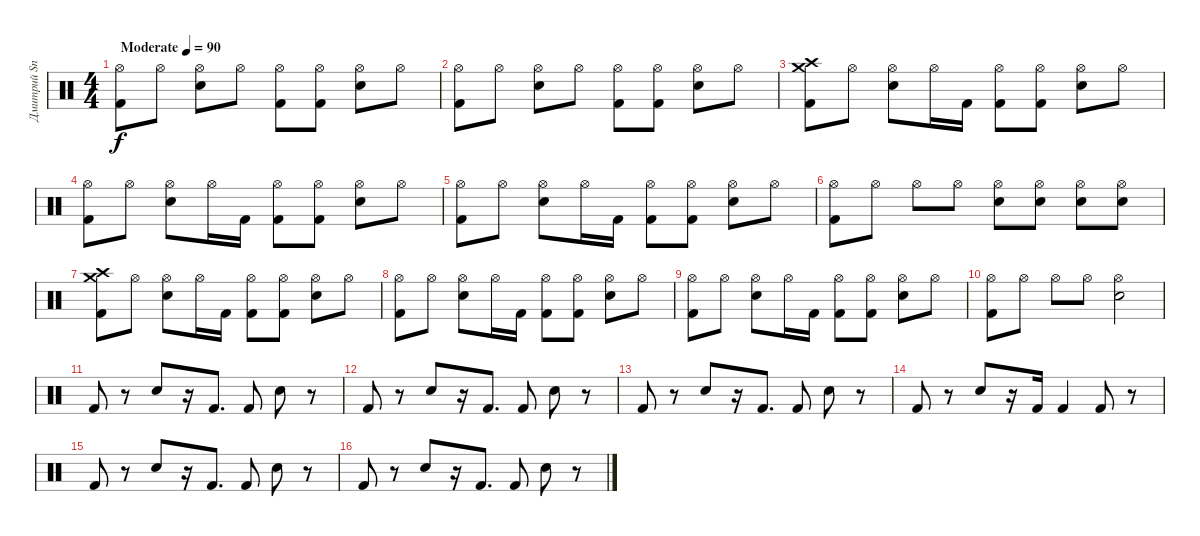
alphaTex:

\track ("Дмитрий Snake Хакимов" "Дмитрий Sn") {instrument percussion}
\staff {score}
\articulation defaults
\ts (4 4)
\tempo (90 "Moderate")
\clef neutral
\ks c
("Hi-Hat (open)" "Kick (hit) 2").8{dy f} "Hi-Hat (open)".8 ("Hi-Hat (open)" "Electric Snare (hit)").8 "Hi-Hat (open)".8 ("Hi-Hat (open)" "Kick (hit) 2").8 ("Hi-Hat (open)" "Kick (hit) 2").8 ("Hi-Hat (open)" "Electric Snare (hit)").8 "Hi-Hat (open)".8 |
("Hi-Hat (open)" "Kick (hit) 2").8 "Hi-Hat (open)".8 ("Hi-Hat (open)" "Electric Snare (hit)").8 "Hi-Hat (open)".8 ("Hi-Hat (open)" "Kick (hit) 2").8 ("Hi-Hat (open)" "Kick (hit) 2").8 ("Hi-Hat (open)" "Electric Snare (hit)").8 "Hi-Hat (open)".8 |
("Crash high (hit)" "Crash medium (hit)" "Kick (hit) 2").8 "Hi-Hat (open)".8 ("Hi-Hat (open)" "Electric Snare (hit)").8 "Hi-Hat (open)".16 "Kick (hit) 2".16 ("Hi-Hat (open)" "Kick (hit) 2").8 ("Hi-Hat (open)" "Kick (hit) 2").8 ("Hi-Hat (open)" "Electric Snare (hit)").8 "Hi-Hat (open)".8 |
("Hi-Hat (open)" "Kick (hit) 2").8 "Hi-Hat (open)".8 ("Hi-Hat (open)" "Electric Snare (hit)").8 "Hi-Hat (open)".16 "Kick (hit) 2".16 ("Hi-Hat (open)" "Kick (hit) 2").8 ("Hi-Hat (open)" "Kick (hit) 2").8 ("Hi-Hat (open)" "Electric Snare (hit)").8 "Hi-Hat (open)".8 |
("Hi-Hat (open)" "Kick (hit) 2").8 "Hi-Hat (open)".8 ("Hi-Hat (open)" "Electric Snare (hit)").8 "Hi-Hat (open)".16 "Kick (hit) 2".16 ("Hi-Hat (open)" "Kick (hit) 2").8 ("Hi-Hat (open)" "Kick (hit) 2").8 ("Hi-Hat (open)" "Electric Snare (hit)").8 "Hi-Hat (open)".8 |
("Hi-Hat (open)" "Kick (hit) 2").8 "Hi-Hat (open)".8 "Hi-Hat (open)".8 "Hi-Hat (open)".8 ("Hi-Hat (open)" "Electric Snare (hit)").8 ("Hi-Hat (open)" "Electric Snare (hit)").8 ("Hi-Hat (open)" "Electric Snare (hit)").8 ("Hi-Hat (open)" "Electric Snare (hit)").8 |
("Crash high (hit)" "Crash medium (hit)" "Kick (hit) 2").8 "Hi-Hat (open)".8 ("Hi-Hat (open)" "Electric Snare (hit)").8 "Hi-Hat (open)".16 "Kick (hit) 2".16 ("Hi-Hat (open)" "Kick (hit) 2").8 ("Hi-Hat (open)" "Kick (hit) 2").8 ("Hi-Hat (open)" "Electric Snare (hit)").8 "Hi-Hat (open)".8 |
("Hi-Hat (open)" "Kick (hit) 2").8 "Hi-Hat (open)".8 ("Hi-Hat (open)" "Electric Snare (hit)").8 "Hi-Hat (open)".16 "Kick (hit) 2".16 ("Hi-Hat (open)" "Kick (hit) 2").8 ("Hi-Hat (open)" "Kick (hit) 2").8 ("Hi-Hat (open)" "Electric Snare (hit)").8 "Hi-Hat (open)".8 |
("Hi-Hat (open)" "Kick (hit) 2").8 "Hi-Hat (open)".8 ("Hi-Hat (open)" "Electric Snare (hit)").8 "Hi-Hat (open)".16 "Kick (hit) 2".16 ("Hi-Hat (open)" "Kick (hit) 2").8 ("Hi-Hat (open)" "Kick (hit) 2").8 ("Hi-Hat (open)" "Electric Snare (hit)").8 "Hi-Hat (open)".8 |
("Hi-Hat (open)" "Kick (hit) 2").8 "Hi-Hat (open)".8 "Hi-Hat (open)".8 "Hi-Hat (open)".8 ("Hi-Hat (open)" "Electric Snare (hit)").2 |
"Kick (hit) 2".8 r.8 "Snare (hit) 2".8 r.16 "Kick (hit) 2".8{d} "Kick (hit) 2".8 "Snare (hit) 2".8 r.8 |
"Kick (hit) 2".8 r.8 "Snare (hit) 2".8 r.16 "Kick (hit) 2".8{d} "Kick (hit) 2".8 "Snare (hit) 2".8 r.8 |
"Kick (hit) 2".8 r.8 "Snare (hit) 2".8 r.16 "Kick (hit) 2".8{d} "Kick (hit) 2".8 "Snare (hit) 2".8 r.8 |
"Kick (hit) 2".8 r.8 "Snare (hit) 2".8 r.16 "Kick (hit) 2".16 "Kick (hit) 2".4 "Kick (hit) 2".8 r.8 |
"Kick (hit) 2".8 r.8 "Snare (hit) 2".8 r.16 "Kick (hit) 2".8{d} "Kick (hit) 2".8 "Snare (hit) 2".8 r.8 |
"Kick (hit) 2".8 r.8 "Snare (hit) 2".8 r.16 "Kick (hit) 2".8{d} "Kick (hit) 2".8 "Snare (hit) 2".8 r.8
